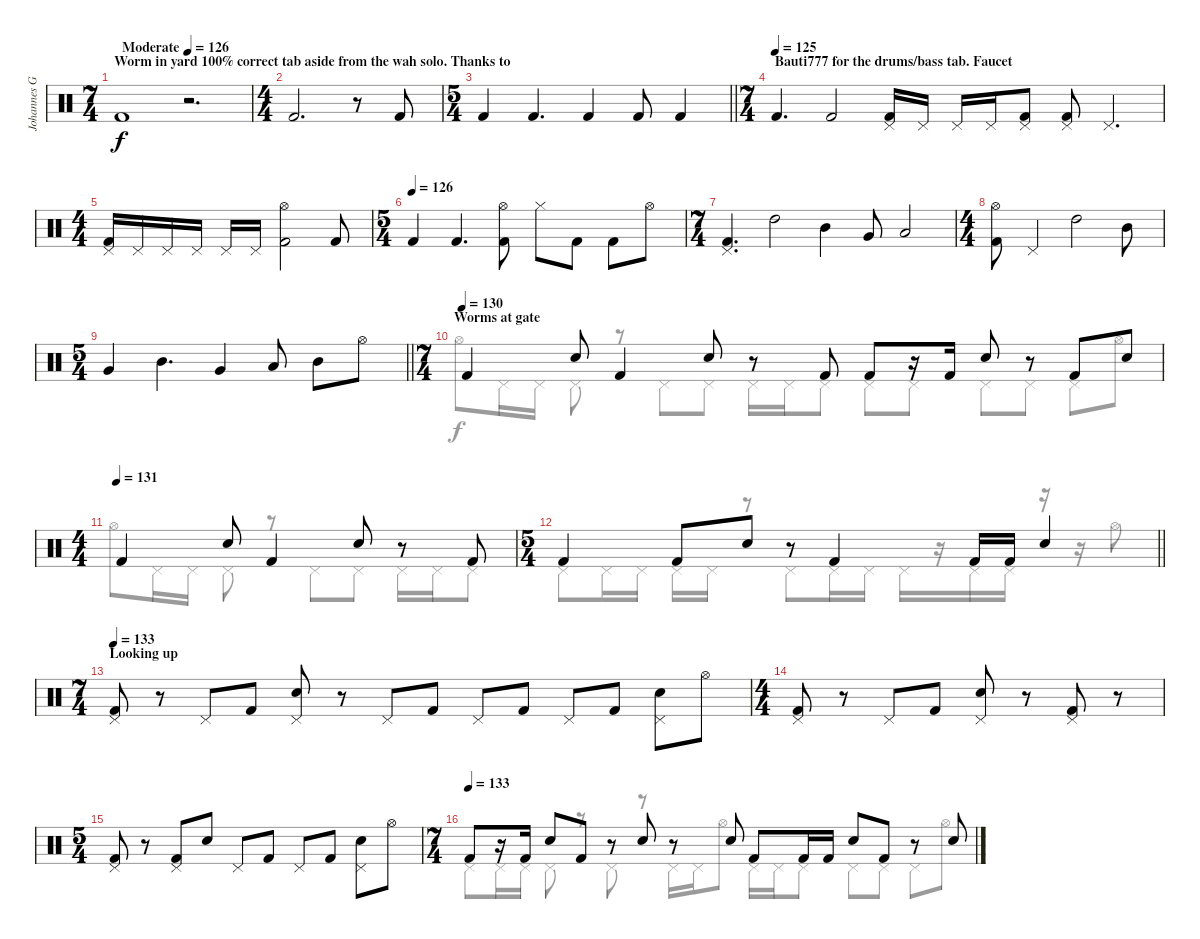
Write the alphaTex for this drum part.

\track ("Johannes Grossmann" "Johannes G") {instrument percussion}
\staff {score}
\articulation defaults
\voice
\ts (7 4)
\section ("" "Worm in yard 100% correct tab aside from the wah solo. Thanks to")
\tempo (126 "Moderate")
\clef neutral
\ks c "Kick (hit) 2".1{dy f}
r.2{d} |
\ts (4 4)
"Kick (hit) 2".2{d} r.8 "Kick (hit) 2".8 |
\ts (5 4)
\barLineRight lightlight "Kick (hit) 2".4 "Kick (hit) 2".4{d} "Kick (hit) 2".4 "Kick (hit) 2".8 "Kick (hit) 2".4
|
\ts (7 4)
\section ("" " Bauti777 for the drums/bass tab. Faucet")
\tempo (125)
"Kick (hit) 2".4{d} "Kick (hit) 2".2 ("Pedal Hi-Hat (hit)" "Kick (hit) 2").16 "Pedal Hi-Hat (hit)".16 "Pedal Hi-Hat (hit)".16 "Pedal Hi-Hat (hit)".16 ("Pedal Hi-Hat (hit)" "Kick (hit) 2").8 ("Pedal Hi-Hat (hit)" "Kick (hit) 2").8 "Pedal Hi-Hat (hit)".4{d} |
\ts (4 4)
("Pedal Hi-Hat (hit)" "Kick (hit) 2").16 "Pedal Hi-Hat (hit)".16 "Pedal Hi-Hat (hit)".16 "Pedal Hi-Hat (hit)".16 "Pedal Hi-Hat (hit)".16 "Pedal Hi-Hat (hit)".16 ("Hi-Hat (open)" "Kick (hit) 2").2 "Kick (hit) 2".8 |
\ts (5 4)
\tempo (126)
"Kick (hit) 2".4 "Kick (hit) 2".4{d} ("Hi-Hat (open)" "Kick (hit) 2").8 "Hi-Hat (closed)".8 "Kick (hit) 2".8 "Kick (hit) 2".8 "Hi-Hat (open)".8 |
\ts (7 4)
("Pedal Hi-Hat (hit)" "Kick (hit) 2").4{d} "High Tom (hit)".2 "Mid Tom (hit)".4 "Very Low Tom (hit)".8 "Low Floor Tom (hit)".2 |
\ts (4 4)
("Hi-Hat (open)" "Kick (hit) 2").8 "Pedal Hi-Hat (hit)".4 "High Tom (hit)".2 "Mid Tom (hit)".8 |
\ts (5 4)
\barLineRight lightlight "Very Low Tom (hit)".4 "Mid Tom (hit)".4{d} "Very Low Tom (hit)".4 "Low Floor Tom (hit)".8 "Mid Tom (hit)".8 "Hi-Hat (open)".8
|
\ts (7 4)
\section ("" "Worms at gate")
\tempo (130)
"Kick (hit) 2".4 "Snare (hit) 2".8 "Kick (hit) 2".4 "Snare (hit) 2".8 r.8 "Kick (hit) 2".8 "Kick (hit) 2".8 r.16 "Kick (hit) 2".16 "Snare (hit) 2".8 r.8 "Kick (hit) 2".8 "Snare (hit) 2".8 |
\ts (4 4)
\tempo (131)
"Kick (hit) 2".4 "Snare (hit) 2".8 "Kick (hit) 2".4 "Snare (hit) 2".8 r.8 "Kick (hit) 2".8 |
\ts (5 4)
\barLineRight lightlight "Kick (hit) 2".4 "Kick (hit) 2".8 "Snare (hit) 2".8
r.8 "Kick (hit) 2".4 "Kick (hit) 2".16 "Kick (hit) 2".16 "Snare (hit) 2".4 |
\ts (7 4)
\section ("" "Looking up")
\tempo 133
("Pedal Hi-Hat (hit)" "Kick (hit) 2").8 r.8 "Pedal Hi-Hat (hit)".8 "Kick (hit) 2".8 ("Pedal Hi-Hat (hit)" "Snare (hit) 2").8 r.8 "Pedal Hi-Hat (hit)".8 "Kick (hit) 2".8 "Pedal Hi-Hat (hit)".8 "Kick (hit) 2".8 "Pedal Hi-Hat (hit)".8 "Kick (hit) 2".8 ("Pedal Hi-Hat (hit)" "Snare (hit) 2").8 "Hi-Hat (open)".8 |
\ts (4 4)
("Pedal Hi-Hat (hit)" "Kick (hit) 2").8 r.8 "Pedal Hi-Hat (hit)".8 "Kick (hit) 2".8 ("Pedal Hi-Hat (hit)" "Snare (hit) 2").8 r.8 ("Pedal Hi-Hat (hit)" "Kick (hit) 2").8 r.8 |
\ts (5 4)
("Pedal Hi-Hat (hit)" "Kick (hit) 2").8 r.8 ("Pedal Hi-Hat (hit)" "Kick (hit) 2").8 "Snare (hit) 2".8 "Pedal Hi-Hat (hit)".8 "Kick (hit) 2".8 "Pedal Hi-Hat (hit)".8 "Kick (hit) 2".8 ("Pedal Hi-Hat (hit)" "Snare (hit) 2").8 "Hi-Hat (open)".8 |
\ts (7 4)
\tempo (133)
"Kick (hit) 2".8 r.16 "Kick (hit) 2".16 "Snare (hit) 2".8 "Kick (hit) 2".8 r.8 "Snare (hit) 2".8 r.8 "Snare (hit) 2".8 "Kick (hit) 2".8 "Kick (hit) 2".16 "Kick (hit) 2".16 "Snare (hit) 2".8 "Kick (hit) 2".8 r.8 "Snare (hit) 2".8
\voice
\clef neutral
\ottava regular
\simile none
\ks c
|
|
\barLineRight lightlight
|
|
|
|
|
|
\barLineRight lightlight
|
"Hi-Hat (open)".8 "Pedal Hi-Hat (hit)".16 "Pedal Hi-Hat (hit)".16 "Pedal Hi-Hat (hit)".8 r.8 "Pedal Hi-Hat (hit)".8 "Pedal Hi-Hat (hit)".8 "Pedal Hi-Hat (hit)".16 "Pedal Hi-Hat (hit)".16 "Pedal Hi-Hat (hit)".8 "Pedal Hi-Hat (hit)".8 "Pedal Hi-Hat (hit)".8 "Pedal Hi-Hat (hit)".8 "Pedal Hi-Hat (hit)".8 "Pedal Hi-Hat (hit)".8 "Hi-Hat (open)".8 |
"Hi-Hat (open)".8 "Pedal Hi-Hat (hit)".16 "Pedal Hi-Hat (hit)".16 "Pedal Hi-Hat (hit)".8 r.8 "Pedal Hi-Hat (hit)".8 "Pedal Hi-Hat (hit)".8 "Pedal Hi-Hat (hit)".16 "Pedal Hi-Hat (hit)".16 "Pedal Hi-Hat (hit)".8 |
\barLineRight lightlight "Pedal Hi-Hat (hit)".8 "Pedal Hi-Hat (hit)".16 "Pedal Hi-Hat (hit)".16 "Pedal Hi-Hat (hit)".16 "Pedal Hi-Hat (hit)".16
r.8 "Pedal Hi-Hat (hit)".8 "Pedal Hi-Hat (hit)".16 "Pedal Hi-Hat (hit)".16 "Pedal Hi-Hat (hit)".16 r.16 "Pedal Hi-Hat (hit)".16 "Pedal Hi-Hat (hit)".16 r.16 r.16 "Hi-Hat (open)".8 |
|
|
|
"Pedal Hi-Hat (hit)".8 "Pedal Hi-Hat (hit)".16 "Pedal Hi-Hat (hit)".16 "Pedal Hi-Hat (hit)".8 r.8 "Pedal Hi-Hat (hit)".8 r.8 "Pedal Hi-Hat (hit)".16 "Pedal Hi-Hat (hit)".16 "Hi-Hat (open)".8 "Pedal Hi-Hat (hit)".16 "Pedal Hi-Hat (hit)".16 "Pedal Hi-Hat (hit)".8 "Pedal Hi-Hat (hit)".8 "Pedal Hi-Hat (hit)".8 "Pedal Hi-Hat (hit)".8 "Hi-Hat (open)".8
